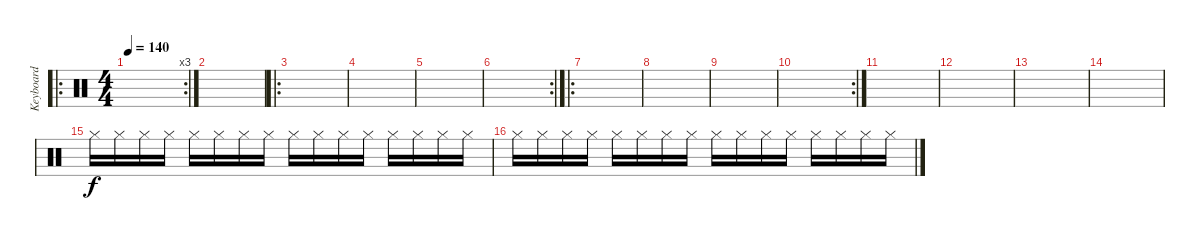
\track ("Keyboard" "Keyboard") {instrument percussion}
\staff {score}
\articulation defaults
\ro
\rc 3
\ts (4 4)
\tempo 140
\clef neutral
\ks c
|
|
\ro
|
|
|
\rc 2
|
\ro
|
|
|
\rc 2
|
|
|
|
|
"Hi-Hat (closed)".16 "Hi-Hat (closed)".16 "Hi-Hat (closed)".16 "Hi-Hat (closed)".16 "Hi-Hat (closed)".16 "Hi-Hat (closed)".16 "Hi-Hat (closed)".16 "Hi-Hat (closed)".16 "Hi-Hat (closed)".16 "Hi-Hat (closed)".16 "Hi-Hat (closed)".16 "Hi-Hat (closed)".16 "Hi-Hat (closed)".16 "Hi-Hat (closed)".16 "Hi-Hat (closed)".16 "Hi-Hat (closed)".16 |
"Hi-Hat (closed)".16 "Hi-Hat (closed)".16 "Hi-Hat (closed)".16 "Hi-Hat (closed)".16 "Hi-Hat (closed)".16 "Hi-Hat (closed)".16 "Hi-Hat (closed)".16 "Hi-Hat (closed)".16 "Hi-Hat (closed)".16 "Hi-Hat (closed)".16 "Hi-Hat (closed)".16 "Hi-Hat (closed)".16 "Hi-Hat (closed)".16 "Hi-Hat (closed)".16 "Hi-Hat (closed)".16 "Hi-Hat (closed)".16
